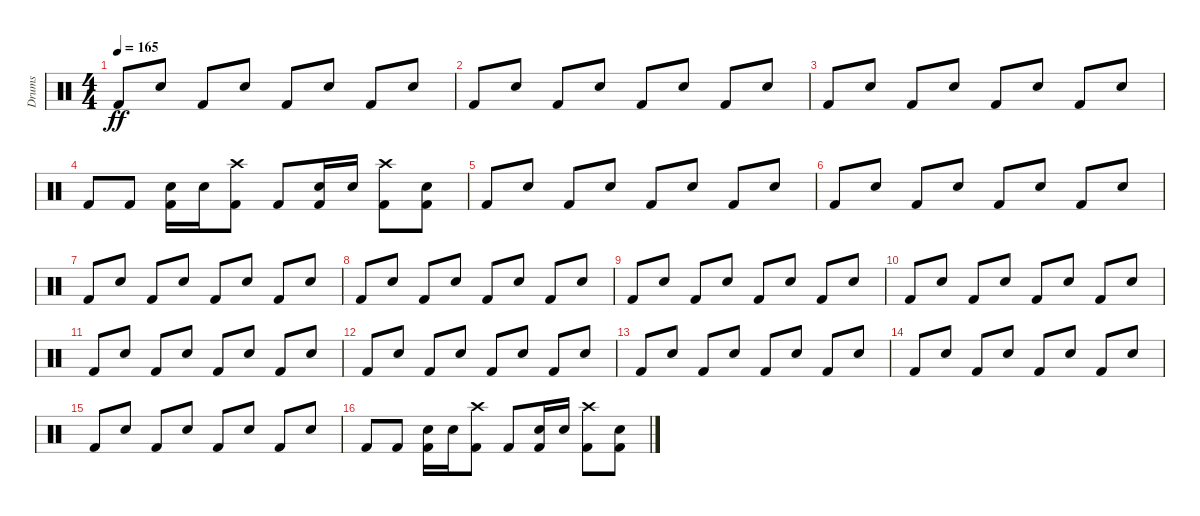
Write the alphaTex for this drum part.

\track ("Drums" "Drums") {instrument percussion}
\staff {score}
\articulation defaults
\ts (4 4)
\tempo 165
\clef neutral
\ks c "Kick (hit) 2".8{dy ff} "Snare (hit) 2".8 "Kick (hit) 2".8 "Snare (hit) 2".8 "Kick (hit) 2".8 "Snare (hit) 2".8 "Kick (hit) 2".8 "Snare (hit) 2".8
|
"Kick (hit) 2".8 "Snare (hit) 2".8 "Kick (hit) 2".8 "Snare (hit) 2".8 "Kick (hit) 2".8 "Snare (hit) 2".8 "Kick (hit) 2".8 "Snare (hit) 2".8 |
"Kick (hit) 2".8 "Snare (hit) 2".8 "Kick (hit) 2".8 "Snare (hit) 2".8 "Kick (hit) 2".8 "Snare (hit) 2".8 "Kick (hit) 2".8 "Snare (hit) 2".8 |
"Kick (hit) 2".8 "Kick (hit) 2".8 ("Snare (hit) 2" "Kick (hit) 2").16 "Snare (hit) 2".16 ("Crash high (hit)" "Kick (hit) 2").8 "Kick (hit) 2".8 ("Snare (hit) 2" "Kick (hit) 2").16 "Snare (hit) 2".16 ("Crash high (hit)" "Kick (hit) 2").8 ("Snare (hit) 2" "Kick (hit) 2").8 |
"Kick (hit) 2".8 "Snare (hit) 2".8 "Kick (hit) 2".8 "Snare (hit) 2".8 "Kick (hit) 2".8 "Snare (hit) 2".8 "Kick (hit) 2".8 "Snare (hit) 2".8 |
"Kick (hit) 2".8 "Snare (hit) 2".8 "Kick (hit) 2".8 "Snare (hit) 2".8 "Kick (hit) 2".8 "Snare (hit) 2".8 "Kick (hit) 2".8 "Snare (hit) 2".8 |
"Kick (hit) 2".8 "Snare (hit) 2".8 "Kick (hit) 2".8 "Snare (hit) 2".8 "Kick (hit) 2".8 "Snare (hit) 2".8 "Kick (hit) 2".8 "Snare (hit) 2".8 |
"Kick (hit) 2".8 "Snare (hit) 2".8 "Kick (hit) 2".8 "Snare (hit) 2".8 "Kick (hit) 2".8 "Snare (hit) 2".8 "Kick (hit) 2".8 "Snare (hit) 2".8 |
"Kick (hit) 2".8 "Snare (hit) 2".8 "Kick (hit) 2".8 "Snare (hit) 2".8 "Kick (hit) 2".8 "Snare (hit) 2".8 "Kick (hit) 2".8 "Snare (hit) 2".8 |
"Kick (hit) 2".8 "Snare (hit) 2".8 "Kick (hit) 2".8 "Snare (hit) 2".8 "Kick (hit) 2".8 "Snare (hit) 2".8 "Kick (hit) 2".8 "Snare (hit) 2".8 |
"Kick (hit) 2".8 "Snare (hit) 2".8 "Kick (hit) 2".8 "Snare (hit) 2".8 "Kick (hit) 2".8 "Snare (hit) 2".8 "Kick (hit) 2".8 "Snare (hit) 2".8 |
"Kick (hit) 2".8 "Snare (hit) 2".8 "Kick (hit) 2".8 "Snare (hit) 2".8 "Kick (hit) 2".8 "Snare (hit) 2".8 "Kick (hit) 2".8 "Snare (hit) 2".8 |
"Kick (hit) 2".8 "Snare (hit) 2".8 "Kick (hit) 2".8 "Snare (hit) 2".8 "Kick (hit) 2".8 "Snare (hit) 2".8 "Kick (hit) 2".8 "Snare (hit) 2".8 |
"Kick (hit) 2".8 "Snare (hit) 2".8 "Kick (hit) 2".8 "Snare (hit) 2".8 "Kick (hit) 2".8 "Snare (hit) 2".8 "Kick (hit) 2".8 "Snare (hit) 2".8 |
"Kick (hit) 2".8 "Snare (hit) 2".8 "Kick (hit) 2".8 "Snare (hit) 2".8 "Kick (hit) 2".8 "Snare (hit) 2".8 "Kick (hit) 2".8 "Snare (hit) 2".8 |
"Kick (hit) 2".8 "Kick (hit) 2".8 ("Kick (hit) 2" "Snare (hit) 2").16 "Snare (hit) 2".16 ("Kick (hit) 2" "Crash high (hit)").8 "Kick (hit) 2".8 ("Kick (hit) 2" "Snare (hit) 2").16 "Snare (hit) 2".16 ("Kick (hit) 2" "Crash high (hit)").8 ("Kick (hit) 2" "Snare (hit) 2").8
